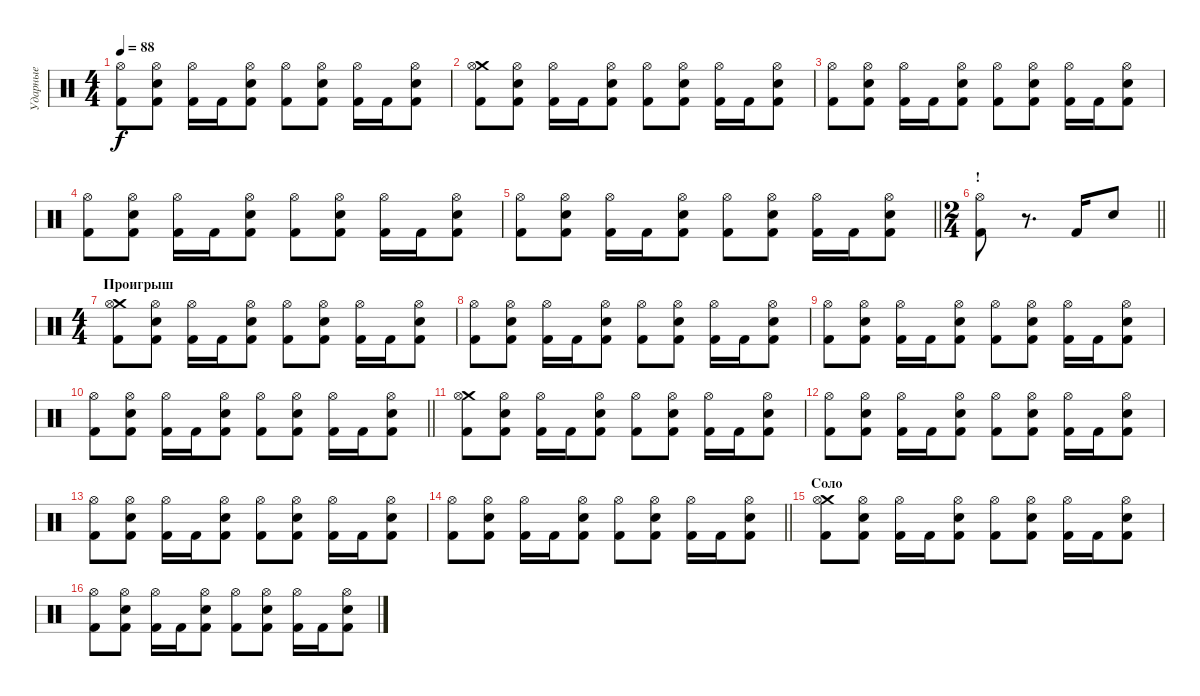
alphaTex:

\track ("Ударные" "Ударные") {instrument percussion}
\staff {score}
\articulation defaults
\ts (4 4)
\tempo 88
\clef neutral
\ks c
("Kick (hit) 2" "Hi-Hat (open)").8{dy f} ("Snare (hit) 2" "Kick (hit) 2" "Hi-Hat (open)").8 ("Kick (hit) 2" "Hi-Hat (open)").16 "Kick (hit) 2".16 ("Snare (hit) 2" "Kick (hit) 2" "Hi-Hat (open)").8 ("Kick (hit) 2" "Hi-Hat (open)").8 ("Snare (hit) 2" "Kick (hit) 2" "Hi-Hat (open)").8 ("Kick (hit) 2" "Hi-Hat (open)").16 "Kick (hit) 2".16 ("Snare (hit) 2" "Kick (hit) 2" "Hi-Hat (open)").8 |
("Kick (hit) 2" "Crash medium (hit)" "Hi-Hat (open)").8 ("Snare (hit) 2" "Kick (hit) 2" "Hi-Hat (open)").8 ("Kick (hit) 2" "Hi-Hat (open)").16 "Kick (hit) 2".16 ("Snare (hit) 2" "Kick (hit) 2" "Hi-Hat (open)").8 ("Kick (hit) 2" "Hi-Hat (open)").8 ("Snare (hit) 2" "Kick (hit) 2" "Hi-Hat (open)").8 ("Kick (hit) 2" "Hi-Hat (open)").16 "Kick (hit) 2".16 ("Snare (hit) 2" "Kick (hit) 2" "Hi-Hat (open)").8 |
("Kick (hit) 2" "Hi-Hat (open)").8 ("Snare (hit) 2" "Kick (hit) 2" "Hi-Hat (open)").8 ("Kick (hit) 2" "Hi-Hat (open)").16 "Kick (hit) 2".16 ("Snare (hit) 2" "Kick (hit) 2" "Hi-Hat (open)").8 ("Kick (hit) 2" "Hi-Hat (open)").8 ("Snare (hit) 2" "Kick (hit) 2" "Hi-Hat (open)").8 ("Kick (hit) 2" "Hi-Hat (open)").16 "Kick (hit) 2".16 ("Snare (hit) 2" "Kick (hit) 2" "Hi-Hat (open)").8 |
("Kick (hit) 2" "Hi-Hat (open)").8 ("Snare (hit) 2" "Kick (hit) 2" "Hi-Hat (open)").8 ("Kick (hit) 2" "Hi-Hat (open)").16 "Kick (hit) 2".16 ("Snare (hit) 2" "Kick (hit) 2" "Hi-Hat (open)").8 ("Kick (hit) 2" "Hi-Hat (open)").8 ("Snare (hit) 2" "Kick (hit) 2" "Hi-Hat (open)").8 ("Kick (hit) 2" "Hi-Hat (open)").16 "Kick (hit) 2".16 ("Snare (hit) 2" "Kick (hit) 2" "Hi-Hat (open)").8 |
\barLineRight lightlight
("Kick (hit) 2" "Hi-Hat (open)").8 ("Snare (hit) 2" "Kick (hit) 2" "Hi-Hat (open)").8 ("Kick (hit) 2" "Hi-Hat (open)").16 "Kick (hit) 2".16 ("Snare (hit) 2" "Kick (hit) 2" "Hi-Hat (open)").8 ("Kick (hit) 2" "Hi-Hat (open)").8 ("Snare (hit) 2" "Kick (hit) 2" "Hi-Hat (open)").8 ("Kick (hit) 2" "Hi-Hat (open)").16 "Kick (hit) 2".16 ("Snare (hit) 2" "Kick (hit) 2" "Hi-Hat (open)").8 |
\ts (2 4)
\section ("" "!")
\barLineRight lightlight
("Kick (hit) 2" "Hi-Hat (open)").8 r.8{d} "Kick (hit) 2".16 "Snare (hit) 2".8 |
\ts (4 4)
\section ("" "Проигрыш")
("Kick (hit) 2" "Crash medium (hit)" "Hi-Hat (open)").8 ("Snare (hit) 2" "Kick (hit) 2" "Hi-Hat (open)").8 ("Kick (hit) 2" "Hi-Hat (open)").16 "Kick (hit) 2".16 ("Snare (hit) 2" "Kick (hit) 2" "Hi-Hat (open)").8 ("Kick (hit) 2" "Hi-Hat (open)").8 ("Snare (hit) 2" "Kick (hit) 2" "Hi-Hat (open)").8 ("Kick (hit) 2" "Hi-Hat (open)").16 "Kick (hit) 2".16 ("Snare (hit) 2" "Kick (hit) 2" "Hi-Hat (open)").8 |
("Kick (hit) 2" "Hi-Hat (open)").8 ("Snare (hit) 2" "Kick (hit) 2" "Hi-Hat (open)").8 ("Kick (hit) 2" "Hi-Hat (open)").16 "Kick (hit) 2".16 ("Snare (hit) 2" "Kick (hit) 2" "Hi-Hat (open)").8 ("Kick (hit) 2" "Hi-Hat (open)").8 ("Snare (hit) 2" "Kick (hit) 2" "Hi-Hat (open)").8 ("Kick (hit) 2" "Hi-Hat (open)").16 "Kick (hit) 2".16 ("Snare (hit) 2" "Kick (hit) 2" "Hi-Hat (open)").8 |
("Kick (hit) 2" "Hi-Hat (open)").8 ("Snare (hit) 2" "Kick (hit) 2" "Hi-Hat (open)").8 ("Kick (hit) 2" "Hi-Hat (open)").16 "Kick (hit) 2".16 ("Snare (hit) 2" "Kick (hit) 2" "Hi-Hat (open)").8 ("Kick (hit) 2" "Hi-Hat (open)").8 ("Snare (hit) 2" "Kick (hit) 2" "Hi-Hat (open)").8 ("Kick (hit) 2" "Hi-Hat (open)").16 "Kick (hit) 2".16 ("Snare (hit) 2" "Kick (hit) 2" "Hi-Hat (open)").8 |
\barLineRight lightlight
("Kick (hit) 2" "Hi-Hat (open)").8 ("Snare (hit) 2" "Kick (hit) 2" "Hi-Hat (open)").8 ("Kick (hit) 2" "Hi-Hat (open)").16 "Kick (hit) 2".16 ("Snare (hit) 2" "Kick (hit) 2" "Hi-Hat (open)").8 ("Kick (hit) 2" "Hi-Hat (open)").8 ("Snare (hit) 2" "Kick (hit) 2" "Hi-Hat (open)").8 ("Kick (hit) 2" "Hi-Hat (open)").16 "Kick (hit) 2".16 ("Snare (hit) 2" "Kick (hit) 2" "Hi-Hat (open)").8 |
("Kick (hit) 2" "Crash medium (hit)" "Hi-Hat (open)").8 ("Snare (hit) 2" "Kick (hit) 2" "Hi-Hat (open)").8 ("Kick (hit) 2" "Hi-Hat (open)").16 "Kick (hit) 2".16 ("Snare (hit) 2" "Kick (hit) 2" "Hi-Hat (open)").8 ("Kick (hit) 2" "Hi-Hat (open)").8 ("Snare (hit) 2" "Kick (hit) 2" "Hi-Hat (open)").8 ("Kick (hit) 2" "Hi-Hat (open)").16 "Kick (hit) 2".16 ("Snare (hit) 2" "Kick (hit) 2" "Hi-Hat (open)").8 |
("Kick (hit) 2" "Hi-Hat (open)").8 ("Snare (hit) 2" "Kick (hit) 2" "Hi-Hat (open)").8 ("Kick (hit) 2" "Hi-Hat (open)").16 "Kick (hit) 2".16 ("Snare (hit) 2" "Kick (hit) 2" "Hi-Hat (open)").8 ("Kick (hit) 2" "Hi-Hat (open)").8 ("Snare (hit) 2" "Kick (hit) 2" "Hi-Hat (open)").8 ("Kick (hit) 2" "Hi-Hat (open)").16 "Kick (hit) 2".16 ("Snare (hit) 2" "Kick (hit) 2" "Hi-Hat (open)").8 |
("Kick (hit) 2" "Hi-Hat (open)").8 ("Snare (hit) 2" "Kick (hit) 2" "Hi-Hat (open)").8 ("Kick (hit) 2" "Hi-Hat (open)").16 "Kick (hit) 2".16 ("Snare (hit) 2" "Kick (hit) 2" "Hi-Hat (open)").8 ("Kick (hit) 2" "Hi-Hat (open)").8 ("Snare (hit) 2" "Kick (hit) 2" "Hi-Hat (open)").8 ("Kick (hit) 2" "Hi-Hat (open)").16 "Kick (hit) 2".16 ("Snare (hit) 2" "Kick (hit) 2" "Hi-Hat (open)").8 |
\barLineRight lightlight
("Kick (hit) 2" "Hi-Hat (open)").8 ("Snare (hit) 2" "Kick (hit) 2" "Hi-Hat (open)").8 ("Kick (hit) 2" "Hi-Hat (open)").16 "Kick (hit) 2".16 ("Snare (hit) 2" "Kick (hit) 2" "Hi-Hat (open)").8 ("Kick (hit) 2" "Hi-Hat (open)").8 ("Snare (hit) 2" "Kick (hit) 2" "Hi-Hat (open)").8 ("Kick (hit) 2" "Hi-Hat (open)").16 "Kick (hit) 2".16 ("Snare (hit) 2" "Kick (hit) 2" "Hi-Hat (open)").8 |
\section ("" "Соло")
("Kick (hit) 2" "Crash medium (hit)" "Hi-Hat (open)").8 ("Snare (hit) 2" "Kick (hit) 2" "Hi-Hat (open)").8 ("Kick (hit) 2" "Hi-Hat (open)").16 "Kick (hit) 2".16 ("Snare (hit) 2" "Kick (hit) 2" "Hi-Hat (open)").8 ("Kick (hit) 2" "Hi-Hat (open)").8 ("Snare (hit) 2" "Kick (hit) 2" "Hi-Hat (open)").8 ("Kick (hit) 2" "Hi-Hat (open)").16 "Kick (hit) 2".16 ("Snare (hit) 2" "Kick (hit) 2" "Hi-Hat (open)").8 |
("Kick (hit) 2" "Hi-Hat (open)").8 ("Snare (hit) 2" "Kick (hit) 2" "Hi-Hat (open)").8 ("Kick (hit) 2" "Hi-Hat (open)").16 "Kick (hit) 2".16 ("Snare (hit) 2" "Kick (hit) 2" "Hi-Hat (open)").8 ("Kick (hit) 2" "Hi-Hat (open)").8 ("Snare (hit) 2" "Kick (hit) 2" "Hi-Hat (open)").8 ("Kick (hit) 2" "Hi-Hat (open)").16 "Kick (hit) 2".16 ("Snare (hit) 2" "Kick (hit) 2" "Hi-Hat (open)").8
